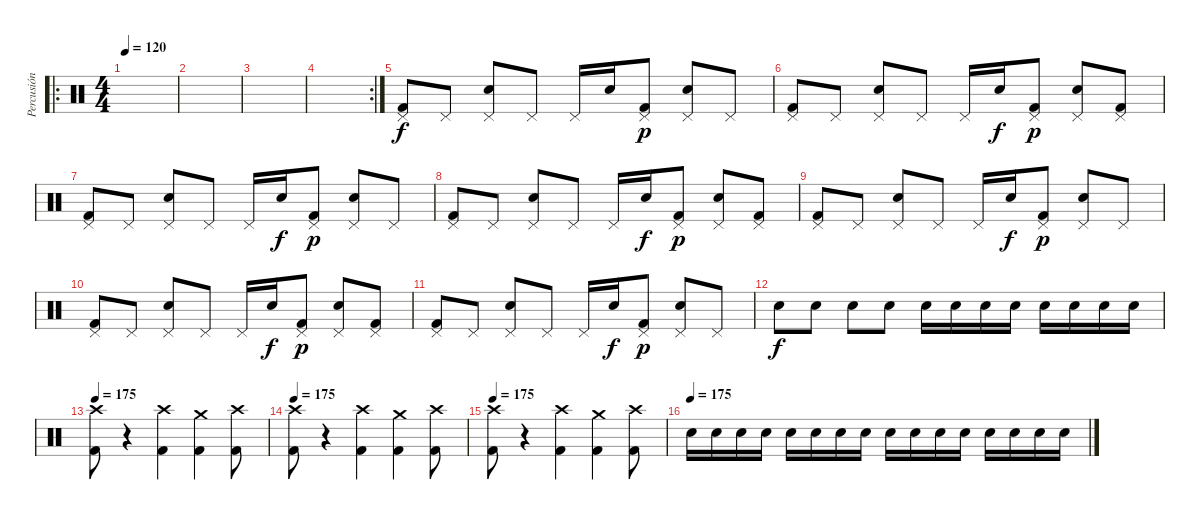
\track ("Percusión" "Percusión") {instrument percussion}
\staff {score}
\articulation defaults
\ro
\ts (4 4)
\tempo 120
\clef neutral
\ks c
|
|
|
\rc 2
|
("Pedal Hi-Hat (hit)" "Kick (hit) 2").8 "Pedal Hi-Hat (hit)".8 ("Pedal Hi-Hat (hit)" "Electric Snare (hit)").8 "Pedal Hi-Hat (hit)".8 "Pedal Hi-Hat (hit)".16 "Electric Snare (hit)".16{dy f} ("Pedal Hi-Hat (hit)" "Kick (hit) 2").8{dy p} ("Pedal Hi-Hat (hit)" "Electric Snare (hit)").8 "Pedal Hi-Hat (hit)".8 |
("Pedal Hi-Hat (hit)" "Kick (hit) 2").8 "Pedal Hi-Hat (hit)".8 ("Pedal Hi-Hat (hit)" "Electric Snare (hit)").8 "Pedal Hi-Hat (hit)".8 "Pedal Hi-Hat (hit)".16 "Electric Snare (hit)".16{dy f} ("Pedal Hi-Hat (hit)" "Kick (hit) 2").8{dy p} ("Pedal Hi-Hat (hit)" "Electric Snare (hit)").8 ("Pedal Hi-Hat (hit)" "Kick (hit) 2").8 |
("Pedal Hi-Hat (hit)" "Kick (hit) 2").8 "Pedal Hi-Hat (hit)".8 ("Pedal Hi-Hat (hit)" "Electric Snare (hit)").8 "Pedal Hi-Hat (hit)".8 "Pedal Hi-Hat (hit)".16 "Electric Snare (hit)".16{dy f} ("Pedal Hi-Hat (hit)" "Kick (hit) 2").8{dy p} ("Pedal Hi-Hat (hit)" "Electric Snare (hit)").8 "Pedal Hi-Hat (hit)".8 |
("Pedal Hi-Hat (hit)" "Kick (hit) 2").8 "Pedal Hi-Hat (hit)".8 ("Pedal Hi-Hat (hit)" "Electric Snare (hit)").8 "Pedal Hi-Hat (hit)".8 "Pedal Hi-Hat (hit)".16 "Electric Snare (hit)".16{dy f} ("Pedal Hi-Hat (hit)" "Kick (hit) 2").8{dy p} ("Pedal Hi-Hat (hit)" "Electric Snare (hit)").8 ("Pedal Hi-Hat (hit)" "Kick (hit) 2").8 |
("Pedal Hi-Hat (hit)" "Kick (hit) 2").8 "Pedal Hi-Hat (hit)".8 ("Pedal Hi-Hat (hit)" "Electric Snare (hit)").8 "Pedal Hi-Hat (hit)".8 "Pedal Hi-Hat (hit)".16 "Electric Snare (hit)".16{dy f} ("Pedal Hi-Hat (hit)" "Kick (hit) 2").8{dy p} ("Pedal Hi-Hat (hit)" "Electric Snare (hit)").8 "Pedal Hi-Hat (hit)".8 |
("Pedal Hi-Hat (hit)" "Kick (hit) 2").8 "Pedal Hi-Hat (hit)".8 ("Pedal Hi-Hat (hit)" "Electric Snare (hit)").8 "Pedal Hi-Hat (hit)".8 "Pedal Hi-Hat (hit)".16 "Electric Snare (hit)".16{dy f} ("Pedal Hi-Hat (hit)" "Kick (hit) 2").8{dy p} ("Pedal Hi-Hat (hit)" "Electric Snare (hit)").8 ("Pedal Hi-Hat (hit)" "Kick (hit) 2").8 |
("Pedal Hi-Hat (hit)" "Kick (hit) 2").8 "Pedal Hi-Hat (hit)".8 ("Pedal Hi-Hat (hit)" "Electric Snare (hit)").8 "Pedal Hi-Hat (hit)".8 "Pedal Hi-Hat (hit)".16 "Electric Snare (hit)".16{dy f} ("Pedal Hi-Hat (hit)" "Kick (hit) 2").8{dy p} ("Pedal Hi-Hat (hit)" "Electric Snare (hit)").8 "Pedal Hi-Hat (hit)".8 |
"Electric Snare (hit)".8{dy f} "Electric Snare (hit)".8 "Electric Snare (hit)".8 "Electric Snare (hit)".8 "Electric Snare (hit)".16 "Electric Snare (hit)".16 "Electric Snare (hit)".16 "Electric Snare (hit)".16 "Electric Snare (hit)".16 "Electric Snare (hit)".16 "Electric Snare (hit)".16 "Electric Snare (hit)".16 |
\tempo 175
("Crash high (hit)" "Kick (hit) 2").8 r.4 ("Crash high (hit)" "Kick (hit) 2").4 ("Crash medium (hit)" "Kick (hit) 2").4 ("Crash high (hit)" "Kick (hit) 2").8 |
\tempo 175
("Crash high (hit)" "Kick (hit) 2").8 r.4 ("Crash high (hit)" "Kick (hit) 2").4 ("Crash medium (hit)" "Kick (hit) 2").4 ("Crash high (hit)" "Kick (hit) 2").8 |
\tempo 175
("Crash high (hit)" "Kick (hit) 2").8 r.4 ("Crash high (hit)" "Kick (hit) 2").4 ("Crash medium (hit)" "Kick (hit) 2").4 ("Crash high (hit)" "Kick (hit) 2").8 |
\tempo (175)
"Electric Snare (hit)".16 "Electric Snare (hit)".16 "Electric Snare (hit)".16 "Electric Snare (hit)".16 "Electric Snare (hit)".16 "Electric Snare (hit)".16 "Electric Snare (hit)".16 "Electric Snare (hit)".16 "Electric Snare (hit)".16 "Electric Snare (hit)".16 "Electric Snare (hit)".16 "Electric Snare (hit)".16 "Electric Snare (hit)".16 "Electric Snare (hit)".16 "Electric Snare (hit)".16 "Electric Snare (hit)".16
